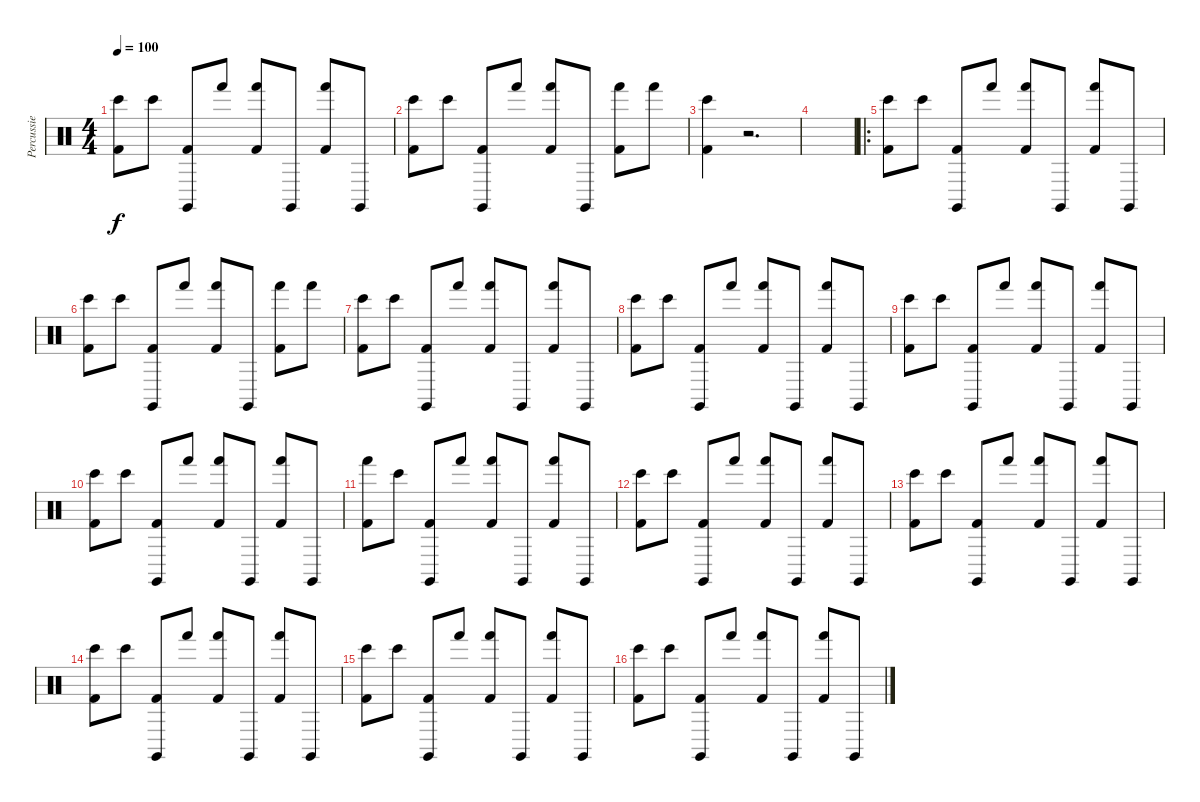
\track ("Percussie" "Percussie") {instrument percussion}
\staff {score}
\articulation defaults
\ts (4 4)
\tempo 100
\clef neutral
\ks c
("Bongo High (hit)" "Kick (hit) 2").8{dy f} "Bongo High (hit)".8 ("Claves (hit)" "Kick (hit) 2").8 "Hand (hit)".8 ("Hand (hit)" "Kick (hit) 2").8 "Claves (hit)".8 ("Hand (hit)"{x} "Kick (hit) 2").8 "Claves (hit)".8 |
("Bongo High (hit)" "Kick (hit) 2").8 "Bongo High (hit)".8 ("Claves (hit)" "Kick (hit) 2").8 "Hand (hit)".8 ("Hand (hit)" "Kick (hit) 2").8 "Claves (hit)".8 ("Hand (hit)" "Kick (hit) 2").8 "Hand (hit)".8 |
("Bongo High (hit)" "Kick (hit) 2").4 r.2{d} |
|
\ro
("Bongo High (hit)"{x} "Kick (hit) 2").8 "Bongo High (hit)".8 ("Claves (hit)" "Kick (hit) 2").8 "Hand (hit)".8 ("Hand (hit)" "Kick (hit) 2").8 "Claves (hit)".8 ("Hand (hit)"{x} "Kick (hit) 2").8 "Claves (hit)".8 |
("Bongo High (hit)" "Kick (hit) 2").8 "Bongo High (hit)".8 ("Claves (hit)" "Kick (hit) 2").8 "Hand (hit)".8 ("Hand (hit)" "Kick (hit) 2").8 "Claves (hit)".8 ("Hand (hit)" "Kick (hit) 2").8 "Hand (hit)".8 |
("Bongo High (hit)"{x} "Kick (hit) 2").8 "Bongo High (hit)".8 ("Claves (hit)" "Kick (hit) 2").8 "Hand (hit)".8 ("Hand (hit)" "Kick (hit) 2").8 "Claves (hit)".8 ("Hand (hit)"{x} "Kick (hit) 2").8 "Claves (hit)".8 |
("Bongo High (hit)" "Kick (hit) 2").8 "Bongo High (hit)".8 ("Claves (hit)" "Kick (hit) 2").8 "Hand (hit)".8 ("Hand (hit)" "Kick (hit) 2").8 "Claves (hit)".8 ("Hand (hit)"{x} "Kick (hit) 2").8 "Claves (hit)".8 |
("Bongo High (hit)"{x} "Kick (hit) 2").8 "Bongo High (hit)".8 ("Claves (hit)" "Kick (hit) 2").8 "Hand (hit)".8 ("Hand (hit)" "Kick (hit) 2").8 "Claves (hit)".8 ("Hand (hit)"{x} "Kick (hit) 2").8 "Claves (hit)".8 |
("Bongo High (hit)" "Kick (hit) 2").8 "Bongo High (hit)".8 ("Claves (hit)" "Kick (hit) 2").8 "Hand (hit)".8 ("Hand (hit)" "Kick (hit) 2").8 "Claves (hit)".8 ("Hand (hit)"{x} "Kick (hit) 2").8 "Claves (hit)".8 |
("Hand (hit)" "Kick (hit) 2").8 "Bongo High (hit)".8 ("Claves (hit)" "Kick (hit) 2").8 "Hand (hit)".8 ("Hand (hit)" "Kick (hit) 2").8 "Claves (hit)".8 ("Hand (hit)"{x} "Kick (hit) 2").8 "Claves (hit)".8 |
("Bongo High (hit)" "Kick (hit) 2").8 "Bongo High (hit)".8 ("Claves (hit)" "Kick (hit) 2").8 "Hand (hit)".8 ("Hand (hit)" "Kick (hit) 2").8 "Claves (hit)".8 ("Hand (hit)"{x} "Kick (hit) 2").8 "Claves (hit)".8 |
("Bongo High (hit)"{x} "Kick (hit) 2").8 "Bongo High (hit)".8 ("Claves (hit)" "Kick (hit) 2").8 "Hand (hit)".8 ("Hand (hit)" "Kick (hit) 2").8 "Claves (hit)".8 ("Hand (hit)"{x} "Kick (hit) 2").8 "Claves (hit)".8 |
("Bongo High (hit)" "Kick (hit) 2").8 "Bongo High (hit)".8 ("Claves (hit)" "Kick (hit) 2").8 "Hand (hit)".8 ("Hand (hit)" "Kick (hit) 2").8 "Claves (hit)".8 ("Hand (hit)"{x} "Kick (hit) 2").8 "Claves (hit)".8 |
("Bongo High (hit)"{x} "Kick (hit) 2").8 "Bongo High (hit)".8 ("Claves (hit)" "Kick (hit) 2").8 "Hand (hit)".8 ("Hand (hit)" "Kick (hit) 2").8 "Claves (hit)".8 ("Hand (hit)"{x} "Kick (hit) 2").8 "Claves (hit)".8 |
("Bongo High (hit)" "Kick (hit) 2").8 "Bongo High (hit)".8 ("Claves (hit)" "Kick (hit) 2").8 "Hand (hit)".8 ("Hand (hit)" "Kick (hit) 2").8 "Claves (hit)".8 ("Hand (hit)"{x} "Kick (hit) 2").8 "Claves (hit)".8
